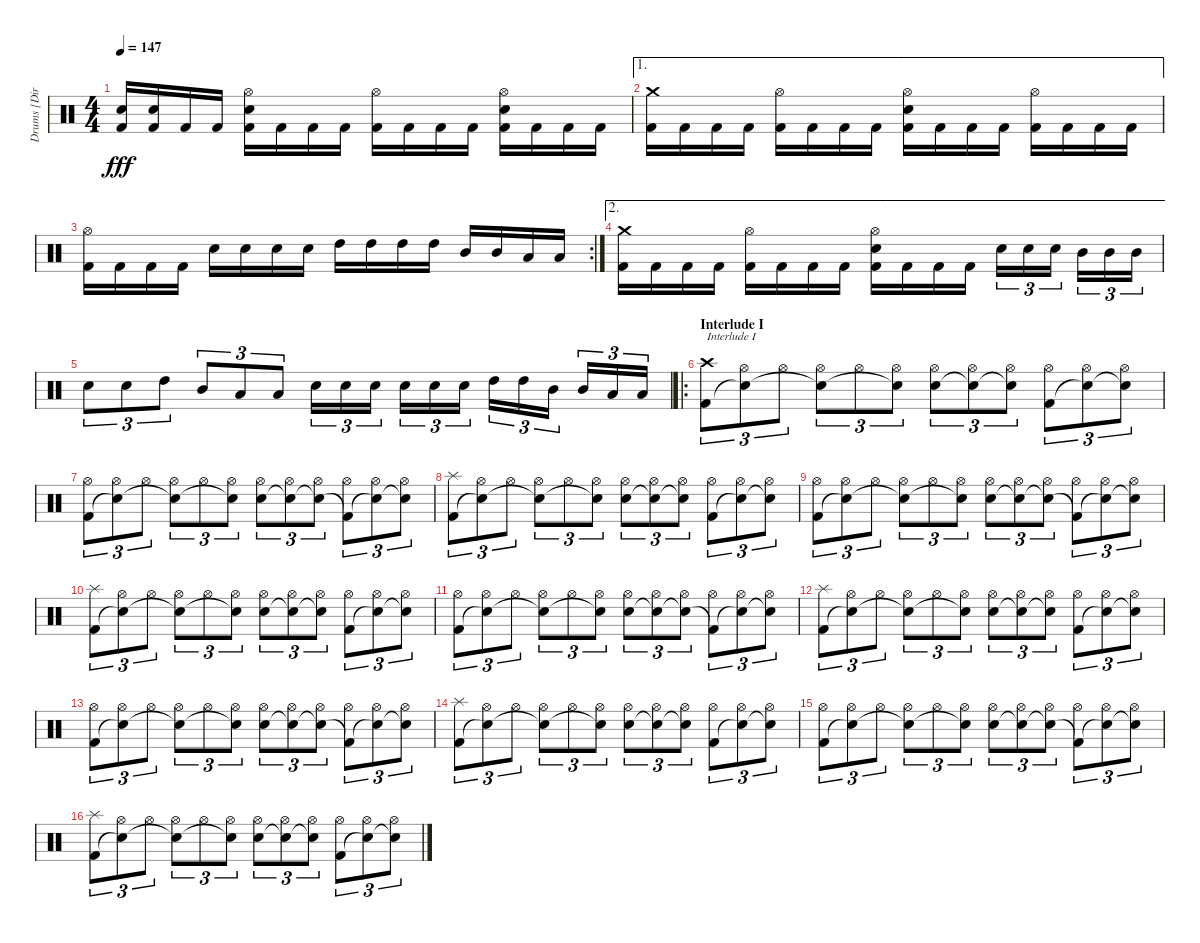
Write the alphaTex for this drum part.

\track ("Drums [Dirge Rep]" "Drums [Dir") {instrument percussion}
\staff {score}
\articulation defaults
\ts (4 4)
\tempo 147
\clef neutral
\ks c
("Electric Snare (hit)" "Kick (hit) 2").16{dy fff} ("Electric Snare (hit)" "Kick (hit) 2").16 "Kick (hit) 2".16 "Kick (hit) 2".16 ("Hi-Hat (open)" "Electric Snare (hit)" "Kick (hit) 2").16 "Kick (hit) 2".16 "Kick (hit) 2".16 "Kick (hit) 2".16 ("Hi-Hat (open)" "Kick (hit) 2").16 "Kick (hit) 2".16 "Kick (hit) 2".16 "Kick (hit) 2".16 ("Hi-Hat (open)" "Electric Snare (hit)" "Kick (hit) 2").16 "Kick (hit) 2".16 "Kick (hit) 2".16 "Kick (hit) 2".16 |
\ae 1
("Crash medium (hit)" "Kick (hit) 2").16 "Kick (hit) 2".16 "Kick (hit) 2".16 "Kick (hit) 2".16 ("Hi-Hat (open)" "Kick (hit) 2").16 "Kick (hit) 2".16 "Kick (hit) 2".16 "Kick (hit) 2".16 ("Hi-Hat (open)" "Electric Snare (hit)" "Kick (hit) 2").16 "Kick (hit) 2".16 "Kick (hit) 2".16 "Kick (hit) 2".16 ("Hi-Hat (open)" "Kick (hit) 2").16 "Kick (hit) 2".16 "Kick (hit) 2".16 "Kick (hit) 2".16 |
\rc 2
("Hi-Hat (open)" "Kick (hit) 2").16 "Kick (hit) 2".16 "Kick (hit) 2".16 "Kick (hit) 2".16 "Electric Snare (hit)".16 "Electric Snare (hit)".16 "Electric Snare (hit)".16 "Electric Snare (hit)".16 "High Tom (hit)".16 "High Tom (hit)".16 "High Tom (hit)".16 "High Tom (hit)".16 "Mid Tom (hit)".16 "Mid Tom (hit)".16 "Low Tom (hit)".16 "Low Tom (hit)".16 |
\ae 2
("Crash medium (hit)" "Kick (hit) 2").16 "Kick (hit) 2".16 "Kick (hit) 2".16 "Kick (hit) 2".16 ("Hi-Hat (open)" "Kick (hit) 2").16 "Kick (hit) 2".16 "Kick (hit) 2".16 "Kick (hit) 2".16 ("Hi-Hat (open)" "Electric Snare (hit)" "Kick (hit) 2").16 "Kick (hit) 2".16 "Kick (hit) 2".16 "Kick (hit) 2".16 "Electric Snare (hit)".16{tu (3 2)} "Electric Snare (hit)".16{tu (3 2)} "Electric Snare (hit)".16{tu (3 2)} "Mid Tom (hit)".16{tu (3 2)} "Mid Tom (hit)".16{tu (3 2)} "Mid Tom (hit)".16{tu (3 2)} |
"Electric Snare (hit)".8{tu (3 2)} "Electric Snare (hit)".8{tu (3 2)} "High Tom (hit)".8{tu (3 2)} "Mid Tom (hit)".8{tu (3 2)} "Low Tom (hit)".8{tu (3 2)} "Low Tom (hit)".8{tu (3 2)} "Electric Snare (hit)".16{tu (3 2)} "Electric Snare (hit)".16{tu (3 2)} "Electric Snare (hit)".16{tu (3 2)} "Electric Snare (hit)".16{tu (3 2)} "Electric Snare (hit)".16{tu (3 2)} "Electric Snare (hit)".16{tu (3 2)} "High Tom (hit)".16{tu (3 2)} "High Tom (hit)".16{tu (3 2)} "Mid Tom (hit)".16{tu (3 2)} "Mid Tom (hit)".16{tu (3 2)} "Low Tom (hit)".16{tu (3 2)} "Low Tom (hit)".16{tu (3 2)} |
\ro
\section ("" "Interlude I")
("Crash high (hit)" "Kick (hit) 2").8{tu (3 2) txt "Interlude I"} ("Hi-Hat (open)" "Snare (hit)"{t}).8{tu (3 2)} "Hi-Hat (open)".8{tu (3 2)} ("Hi-Hat (open)" "Snare (hit)"{t}).8{tu (3 2)} "Hi-Hat (open)".8{tu (3 2)} ("Hi-Hat (open)" "Snare (hit)"{t}).8{tu (3 2)} ("Hi-Hat (open)" "Electric Snare (hit)").8{tu (3 2)} ("Hi-Hat (open)" "Snare (hit)"{t}).8{tu (3 2)} ("Hi-Hat (open)" "Snare (hit)"{t}).8{tu (3 2)} ("Hi-Hat (open)" "Kick (hit) 2").8{tu (3 2)} ("Hi-Hat (open)" "Snare (hit)"{t}).8{tu (3 2)} ("Hi-Hat (open)" "Snare (hit)"{t}).8{tu (3 2)} |
("Hi-Hat (open)" "Kick (hit) 2").8{tu (3 2)} ("Hi-Hat (open)" "Snare (hit)"{t}).8{tu (3 2)} "Hi-Hat (open)".8{tu (3 2)} ("Hi-Hat (open)" "Snare (hit)"{t}).8{tu (3 2)} "Hi-Hat (open)".8{tu (3 2)} ("Hi-Hat (open)" "Snare (hit)"{t}).8{tu (3 2)} ("Hi-Hat (open)" "Electric Snare (hit)").8{tu (3 2)} ("Hi-Hat (open)" "Snare (hit)"{t}).8{tu (3 2)} ("Hi-Hat (open)" "Snare (hit)"{t}).8{tu (3 2)} ("Hi-Hat (open)" "Kick (hit) 2"{t}).8{tu (3 2)} ("Hi-Hat (open)" "Snare (hit)"{t}).8{tu (3 2)} ("Hi-Hat (open)" "Snare (hit)"{t}).8{tu (3 2)} |
("Splash (hit)" "Kick (hit) 2").8{tu (3 2)} ("Hi-Hat (open)" "Snare (hit)"{t}).8{tu (3 2)} "Hi-Hat (open)".8{tu (3 2)} ("Hi-Hat (open)" "Snare (hit)"{t}).8{tu (3 2)} "Hi-Hat (open)".8{tu (3 2)} ("Hi-Hat (open)" "Snare (hit)"{t}).8{tu (3 2)} ("Hi-Hat (open)" "Electric Snare (hit)").8{tu (3 2)} ("Hi-Hat (open)" "Snare (hit)"{t}).8{tu (3 2)} ("Hi-Hat (open)" "Snare (hit)"{t}).8{tu (3 2)} ("Hi-Hat (open)" "Kick (hit) 2").8{tu (3 2)} ("Hi-Hat (open)" "Snare (hit)"{t}).8{tu (3 2)} ("Hi-Hat (open)" "Snare (hit)"{t}).8{tu (3 2)} |
("Hi-Hat (open)" "Kick (hit) 2").8{tu (3 2)} ("Hi-Hat (open)" "Snare (hit)"{t}).8{tu (3 2)} "Hi-Hat (open)".8{tu (3 2)} ("Hi-Hat (open)" "Snare (hit)"{t}).8{tu (3 2)} "Hi-Hat (open)".8{tu (3 2)} ("Hi-Hat (open)" "Snare (hit)"{t}).8{tu (3 2)} ("Hi-Hat (open)" "Electric Snare (hit)").8{tu (3 2)} ("Hi-Hat (open)" "Snare (hit)"{t}).8{tu (3 2)} ("Hi-Hat (open)" "Snare (hit)"{t}).8{tu (3 2)} ("Hi-Hat (open)" "Kick (hit) 2"{t}).8{tu (3 2)} ("Hi-Hat (open)" "Snare (hit)"{t}).8{tu (3 2)} ("Hi-Hat (open)" "Snare (hit)"{t}).8{tu (3 2)} |
("Splash (hit)" "Kick (hit) 2").8{tu (3 2)} ("Hi-Hat (open)" "Snare (hit)"{t}).8{tu (3 2)} "Hi-Hat (open)".8{tu (3 2)} ("Hi-Hat (open)" "Snare (hit)"{t}).8{tu (3 2)} "Hi-Hat (open)".8{tu (3 2)} ("Hi-Hat (open)" "Snare (hit)"{t}).8{tu (3 2)} ("Hi-Hat (open)" "Electric Snare (hit)").8{tu (3 2)} ("Hi-Hat (open)" "Snare (hit)"{t}).8{tu (3 2)} ("Hi-Hat (open)" "Snare (hit)"{t}).8{tu (3 2)} ("Hi-Hat (open)" "Kick (hit) 2").8{tu (3 2)} ("Hi-Hat (open)" "Snare (hit)"{t}).8{tu (3 2)} ("Hi-Hat (open)" "Snare (hit)"{t}).8{tu (3 2)} |
("Hi-Hat (open)" "Kick (hit) 2").8{tu (3 2)} ("Hi-Hat (open)" "Snare (hit)"{t}).8{tu (3 2)} "Hi-Hat (open)".8{tu (3 2)} ("Hi-Hat (open)" "Snare (hit)"{t}).8{tu (3 2)} "Hi-Hat (open)".8{tu (3 2)} ("Hi-Hat (open)" "Snare (hit)"{t}).8{tu (3 2)} ("Hi-Hat (open)" "Electric Snare (hit)").8{tu (3 2)} ("Hi-Hat (open)" "Snare (hit)"{t}).8{tu (3 2)} ("Hi-Hat (open)" "Snare (hit)"{t}).8{tu (3 2)} ("Hi-Hat (open)" "Kick (hit) 2"{t}).8{tu (3 2)} ("Hi-Hat (open)" "Snare (hit)"{t}).8{tu (3 2)} ("Hi-Hat (open)" "Snare (hit)"{t}).8{tu (3 2)} |
("Splash (hit)" "Kick (hit) 2").8{tu (3 2)} ("Hi-Hat (open)" "Snare (hit)"{t}).8{tu (3 2)} "Hi-Hat (open)".8{tu (3 2)} ("Hi-Hat (open)" "Snare (hit)"{t}).8{tu (3 2)} "Hi-Hat (open)".8{tu (3 2)} ("Hi-Hat (open)" "Snare (hit)"{t}).8{tu (3 2)} ("Hi-Hat (open)" "Electric Snare (hit)").8{tu (3 2)} ("Hi-Hat (open)" "Snare (hit)"{t}).8{tu (3 2)} ("Hi-Hat (open)" "Snare (hit)"{t}).8{tu (3 2)} ("Hi-Hat (open)" "Kick (hit) 2").8{tu (3 2)} ("Hi-Hat (open)" "Snare (hit)"{t}).8{tu (3 2)} ("Hi-Hat (open)" "Snare (hit)"{t}).8{tu (3 2)} |
("Hi-Hat (open)" "Kick (hit) 2").8{tu (3 2)} ("Hi-Hat (open)" "Snare (hit)"{t}).8{tu (3 2)} "Hi-Hat (open)".8{tu (3 2)} ("Hi-Hat (open)" "Snare (hit)"{t}).8{tu (3 2)} "Hi-Hat (open)".8{tu (3 2)} ("Hi-Hat (open)" "Snare (hit)"{t}).8{tu (3 2)} ("Hi-Hat (open)" "Electric Snare (hit)").8{tu (3 2)} ("Hi-Hat (open)" "Snare (hit)"{t}).8{tu (3 2)} ("Hi-Hat (open)" "Snare (hit)"{t}).8{tu (3 2)} ("Hi-Hat (open)" "Kick (hit) 2"{t}).8{tu (3 2)} ("Hi-Hat (open)" "Snare (hit)"{t}).8{tu (3 2)} ("Hi-Hat (open)" "Snare (hit)"{t}).8{tu (3 2)} |
("Splash (hit)" "Kick (hit) 2").8{tu (3 2)} ("Hi-Hat (open)" "Snare (hit)"{t}).8{tu (3 2)} "Hi-Hat (open)".8{tu (3 2)} ("Hi-Hat (open)" "Snare (hit)"{t}).8{tu (3 2)} "Hi-Hat (open)".8{tu (3 2)} ("Hi-Hat (open)" "Snare (hit)"{t}).8{tu (3 2)} ("Hi-Hat (open)" "Electric Snare (hit)").8{tu (3 2)} ("Hi-Hat (open)" "Snare (hit)"{t}).8{tu (3 2)} ("Hi-Hat (open)" "Snare (hit)"{t}).8{tu (3 2)} ("Hi-Hat (open)" "Kick (hit) 2").8{tu (3 2)} ("Hi-Hat (open)" "Snare (hit)"{t}).8{tu (3 2)} ("Hi-Hat (open)" "Snare (hit)"{t}).8{tu (3 2)} |
("Hi-Hat (open)" "Kick (hit) 2").8{tu (3 2)} ("Hi-Hat (open)" "Snare (hit)"{t}).8{tu (3 2)} "Hi-Hat (open)".8{tu (3 2)} ("Hi-Hat (open)" "Snare (hit)"{t}).8{tu (3 2)} "Hi-Hat (open)".8{tu (3 2)} ("Hi-Hat (open)" "Snare (hit)"{t}).8{tu (3 2)} ("Hi-Hat (open)" "Electric Snare (hit)").8{tu (3 2)} ("Hi-Hat (open)" "Snare (hit)"{t}).8{tu (3 2)} ("Hi-Hat (open)" "Snare (hit)"{t}).8{tu (3 2)} ("Hi-Hat (open)" "Kick (hit) 2"{t}).8{tu (3 2)} ("Hi-Hat (open)" "Snare (hit)"{t}).8{tu (3 2)} ("Hi-Hat (open)" "Snare (hit)"{t}).8{tu (3 2)} |
("Splash (hit)" "Kick (hit) 2").8{tu (3 2)} ("Hi-Hat (open)" "Snare (hit)"{t}).8{tu (3 2)} "Hi-Hat (open)".8{tu (3 2)} ("Hi-Hat (open)" "Snare (hit)"{t}).8{tu (3 2)} "Hi-Hat (open)".8{tu (3 2)} ("Hi-Hat (open)" "Snare (hit)"{t}).8{tu (3 2)} ("Hi-Hat (open)" "Electric Snare (hit)").8{tu (3 2)} ("Hi-Hat (open)" "Snare (hit)"{t}).8{tu (3 2)} ("Hi-Hat (open)" "Snare (hit)"{t}).8{tu (3 2)} ("Hi-Hat (open)" "Kick (hit) 2").8{tu (3 2)} ("Hi-Hat (open)" "Snare (hit)"{t}).8{tu (3 2)} ("Hi-Hat (open)" "Snare (hit)"{t}).8{tu (3 2)}
